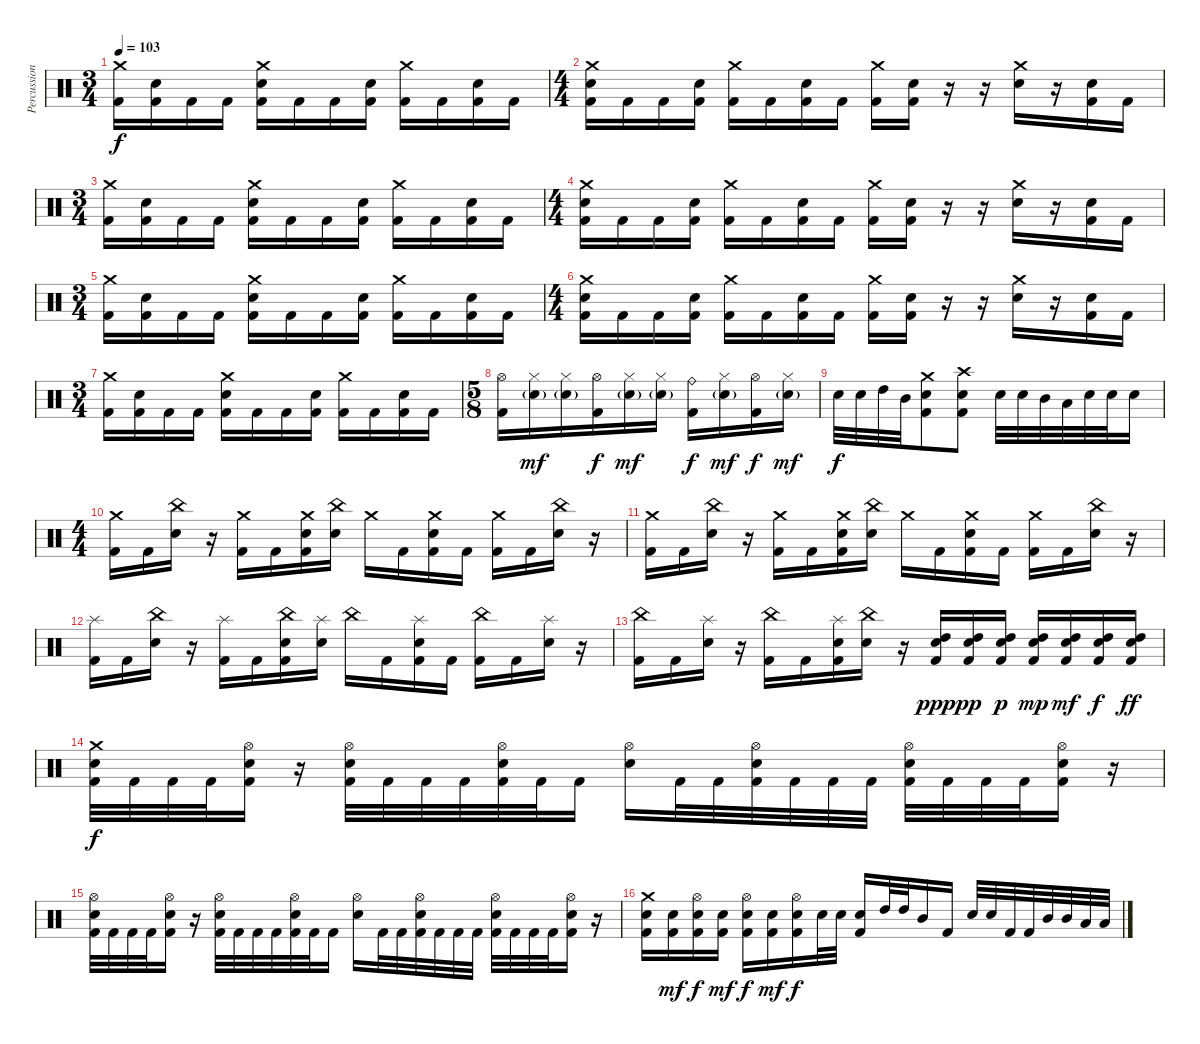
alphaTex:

\track ("Percussion" "Percussion") {instrument percussion}
\staff {score}
\articulation defaults
\ts (3 4)
\tempo 103
\clef neutral
\ks c
("Crash medium (hit)" "Kick (hit) 2").16{dy f} ("Electric Snare (hit)" "Kick (hit) 2").16 "Kick (hit) 2".16 "Kick (hit) 2".16 ("Crash medium (hit)" "Electric Snare (hit)" "Kick (hit) 2").16 "Kick (hit) 2".16 "Kick (hit) 2".16 ("Electric Snare (hit)" "Kick (hit) 2").16 ("Crash medium (hit)" "Kick (hit) 2").16 "Kick (hit) 2".16 ("Electric Snare (hit)" "Kick (hit) 2").16 "Kick (hit) 2".16 |
\ts (4 4)
("Crash medium (hit)" "Electric Snare (hit)" "Kick (hit) 2").16 "Kick (hit) 2".16 "Kick (hit) 2".16 ("Electric Snare (hit)" "Kick (hit) 2").16 ("Crash medium (hit)" "Kick (hit) 2").16 "Kick (hit) 2".16 ("Electric Snare (hit)" "Kick (hit) 2").16 "Kick (hit) 2".16 ("Crash medium (hit)" "Kick (hit) 2").16 ("Electric Snare (hit)" "Kick (hit) 2").16 r.16 r.16 ("Crash medium (hit)" "Electric Snare (hit)").16 r.16 ("Electric Snare (hit)" "Kick (hit) 2").16 "Kick (hit) 2".16 |
\ts (3 4)
("Crash medium (hit)" "Kick (hit) 2").16 ("Electric Snare (hit)" "Kick (hit) 2").16 "Kick (hit) 2".16 "Kick (hit) 2".16 ("Crash medium (hit)" "Electric Snare (hit)" "Kick (hit) 2").16 "Kick (hit) 2".16 "Kick (hit) 2".16 ("Electric Snare (hit)" "Kick (hit) 2").16 ("Crash medium (hit)" "Kick (hit) 2").16 "Kick (hit) 2".16 ("Electric Snare (hit)" "Kick (hit) 2").16 "Kick (hit) 2".16 |
\ts (4 4)
("Crash medium (hit)" "Electric Snare (hit)" "Kick (hit) 2").16 "Kick (hit) 2".16 "Kick (hit) 2".16 ("Electric Snare (hit)" "Kick (hit) 2").16 ("Crash medium (hit)" "Kick (hit) 2").16 "Kick (hit) 2".16 ("Electric Snare (hit)" "Kick (hit) 2").16 "Kick (hit) 2".16 ("Crash medium (hit)" "Kick (hit) 2").16 ("Electric Snare (hit)" "Kick (hit) 2").16 r.16 r.16 ("Crash medium (hit)" "Electric Snare (hit)").16 r.16 ("Electric Snare (hit)" "Kick (hit) 2").16 "Kick (hit) 2".16 |
\ts (3 4)
("Crash medium (hit)" "Kick (hit) 2").16 ("Electric Snare (hit)" "Kick (hit) 2").16 "Kick (hit) 2".16 "Kick (hit) 2".16 ("Crash medium (hit)" "Electric Snare (hit)" "Kick (hit) 2").16 "Kick (hit) 2".16 "Kick (hit) 2".16 ("Electric Snare (hit)" "Kick (hit) 2").16 ("Crash medium (hit)" "Kick (hit) 2").16 "Kick (hit) 2".16 ("Electric Snare (hit)" "Kick (hit) 2").16 "Kick (hit) 2".16 |
\ts (4 4)
("Crash medium (hit)" "Electric Snare (hit)" "Kick (hit) 2").16 "Kick (hit) 2".16 "Kick (hit) 2".16 ("Electric Snare (hit)" "Kick (hit) 2").16 ("Crash medium (hit)" "Kick (hit) 2").16 "Kick (hit) 2".16 ("Electric Snare (hit)" "Kick (hit) 2").16 "Kick (hit) 2".16 ("Crash medium (hit)" "Kick (hit) 2").16 ("Electric Snare (hit)" "Kick (hit) 2").16 r.16 r.16 ("Crash medium (hit)" "Electric Snare (hit)").16 r.16 ("Electric Snare (hit)" "Kick (hit) 2").16 "Kick (hit) 2".16 |
\ts (3 4)
("Crash medium (hit)" "Kick (hit) 2").16 ("Electric Snare (hit)" "Kick (hit) 2").16 "Kick (hit) 2".16 "Kick (hit) 2".16 ("Crash medium (hit)" "Electric Snare (hit)" "Kick (hit) 2").16 "Kick (hit) 2".16 "Kick (hit) 2".16 ("Electric Snare (hit)" "Kick (hit) 2").16 ("Crash medium (hit)" "Kick (hit) 2").16 "Kick (hit) 2".16 ("Electric Snare (hit)" "Kick (hit) 2").16 "Kick (hit) 2".16 |
\ts (5 8)
("Hi-Hat (open)" "Kick (hit) 2").16 ("Hi-Hat (closed)" "Electric Snare (hit)"{g}).16{dy mf} ("Hi-Hat (closed)" "Electric Snare (hit)"{g}).16 ("Hi-Hat (open)" "Kick (hit) 2").16{dy f} ("Hi-Hat (closed)" "Electric Snare (hit)"{g}).16{dy mf} ("Hi-Hat (closed)" "Electric Snare (hit)"{g}).16 ("Ride (bell)" "Kick (hit) 2").16{dy f} ("Hi-Hat (closed)" "Electric Snare (hit)"{g}).16{dy mf} ("Hi-Hat (open)" "Kick (hit) 2").16{dy f} ("Hi-Hat (closed)" "Electric Snare (hit)"{g}).16{dy mf} |
"Electric Snare (hit)".32{dy f} "Electric Snare (hit)".32 "High Tom (hit)".32 "Mid Tom (hit)".32 ("Crash medium (hit)" "Electric Snare (hit)" "Kick (hit) 2").8 ("Crash high (hit)" "Electric Snare (hit)" "Kick (hit) 2").8 "Electric Snare (hit)".32 "Electric Snare (hit)".32 "Mid Tom (hit)".32 "Low Tom (hit)".32 "Electric Snare (hit)".32 "Electric Snare (hit)".32 "Electric Snare (hit)".16 |
\ts (4 4)
("Crash medium (hit)" "Kick (hit) 2").16 "Kick (hit) 2".16 ("China (hit)" "Electric Snare (hit)").16 r.16 ("Crash medium (hit)" "Kick (hit) 2").16 "Kick (hit) 2".16 ("Crash medium (hit)" "Electric Snare (hit)" "Kick (hit) 2").16 ("China (hit)" "Electric Snare (hit)").16 "Crash medium (hit)".16 "Kick (hit) 2".16 ("Crash medium (hit)" "Electric Snare (hit)" "Kick (hit) 2").16 "Kick (hit) 2".16 ("Crash medium (hit)" "Kick (hit) 2").16 "Kick (hit) 2".16 ("China (hit)" "Electric Snare (hit)").16 r.16 |
("Crash medium (hit)" "Kick (hit) 2").16 "Kick (hit) 2".16 ("China (hit)" "Electric Snare (hit)").16 r.16 ("Crash medium (hit)" "Kick (hit) 2").16 "Kick (hit) 2".16 ("Crash medium (hit)" "Electric Snare (hit)" "Kick (hit) 2").16 ("China (hit)" "Electric Snare (hit)").16 "Crash medium (hit)".16 "Kick (hit) 2".16 ("Crash medium (hit)" "Electric Snare (hit)" "Kick (hit) 2").16 "Kick (hit) 2".16 ("Crash medium (hit)" "Kick (hit) 2").16 "Kick (hit) 2".16 ("China (hit)" "Electric Snare (hit)").16 r.16 |
("Splash (hit)" "Kick (hit) 2").16 "Kick (hit) 2".16 ("China (hit)" "Electric Snare (hit)").16 r.16 ("Splash (hit)" "Kick (hit) 2").16 "Kick (hit) 2".16 ("China (hit)" "Electric Snare (hit)" "Kick (hit) 2").16 ("Splash (hit)" "Electric Snare (hit)").16 "China (hit)".16 "Kick (hit) 2".16 ("Splash (hit)" "Electric Snare (hit)" "Kick (hit) 2").16 "Kick (hit) 2".16 ("China (hit)" "Kick (hit) 2").16 "Kick (hit) 2".16 ("Splash (hit)" "Electric Snare (hit)").16 r.16 |
("China (hit)" "Kick (hit) 2").16 "Kick (hit) 2".16 ("Splash (hit)" "Electric Snare (hit)").16 r.16 ("China (hit)" "Kick (hit) 2").16 "Kick (hit) 2".16 ("Splash (hit)" "Electric Snare (hit)" "Kick (hit) 2").16 ("China (hit)" "Electric Snare (hit)").16 r.16 ("High Tom (hit)" "Electric Snare (hit)" "Kick (hit) 2").16{dy ppp} ("High Tom (hit)" "Electric Snare (hit)" "Kick (hit) 2").16{dy pp} ("High Tom (hit)" "Electric Snare (hit)" "Kick (hit) 2").16{dy p} ("High Tom (hit)" "Electric Snare (hit)" "Kick (hit) 2").16{dy mp} ("High Tom (hit)" "Electric Snare (hit)" "Kick (hit) 2").16{dy mf} ("High Tom (hit)" "Electric Snare (hit)" "Kick (hit) 2").16{dy f} ("High Tom (hit)" "Electric Snare (hit)" "Kick (hit) 2").16{dy ff} |
("Crash medium (hit)" "Electric Snare (hit)" "Kick (hit) 2").32{dy f} "Kick (hit) 2".32 "Kick (hit) 2".32 "Kick (hit) 2".32 ("Hi-Hat (open)" "Electric Snare (hit)" "Kick (hit) 2").16 r.16 ("Hi-Hat (open)" "Electric Snare (hit)" "Kick (hit) 2").32 "Kick (hit) 2".32 "Kick (hit) 2".32 "Kick (hit) 2".32 ("Hi-Hat (open)" "Electric Snare (hit)" "Kick (hit) 2").32 "Kick (hit) 2".32 "Kick (hit) 2".16 ("Hi-Hat (open)" "Electric Snare (hit)").16 "Kick (hit) 2".32 "Kick (hit) 2".32 ("Hi-Hat (open)" "Electric Snare (hit)" "Kick (hit) 2").32 "Kick (hit) 2".32 "Kick (hit) 2".32 "Kick (hit) 2".32 ("Hi-Hat (open)" "Electric Snare (hit)" "Kick (hit) 2").32 "Kick (hit) 2".32 "Kick (hit) 2".32 "Kick (hit) 2".32 ("Hi-Hat (open)" "Electric Snare (hit)" "Kick (hit) 2").16 r.16 |
("Hi-Hat (open)" "Electric Snare (hit)" "Kick (hit) 2").32 "Kick (hit) 2".32 "Kick (hit) 2".32 "Kick (hit) 2".32 ("Hi-Hat (open)" "Electric Snare (hit)" "Kick (hit) 2").16 r.16 ("Hi-Hat (open)" "Electric Snare (hit)" "Kick (hit) 2").32 "Kick (hit) 2".32 "Kick (hit) 2".32 "Kick (hit) 2".32 ("Hi-Hat (open)" "Electric Snare (hit)" "Kick (hit) 2").32 "Kick (hit) 2".32 "Kick (hit) 2".16 ("Hi-Hat (open)" "Electric Snare (hit)").16 "Kick (hit) 2".32 "Kick (hit) 2".32 ("Hi-Hat (open)" "Electric Snare (hit)" "Kick (hit) 2").32 "Kick (hit) 2".32 "Kick (hit) 2".32 "Kick (hit) 2".32 ("Hi-Hat (open)" "Electric Snare (hit)" "Kick (hit) 2").32 "Kick (hit) 2".32 "Kick (hit) 2".32 "Kick (hit) 2".32 ("Hi-Hat (open)" "Electric Snare (hit)" "Kick (hit) 2").16 r.16 |
("Crash medium (hit)" "Electric Snare (hit)" "Kick (hit) 2").16 ("Electric Snare (hit)" "Kick (hit) 2").16{dy mf} ("Hi-Hat (open)" "Electric Snare (hit)" "Kick (hit) 2").16{dy f} ("Electric Snare (hit)" "Kick (hit) 2").16{dy mf} ("Hi-Hat (open)" "Electric Snare (hit)" "Kick (hit) 2").16{dy f} ("Electric Snare (hit)" "Kick (hit) 2").16{dy mf} ("Hi-Hat (open)" "Electric Snare (hit)" "Kick (hit) 2").16{dy f} "Electric Snare (hit)".32 "Electric Snare (hit)".32 ("Electric Snare (hit)" "Kick (hit) 2").16 "High Tom (hit)".32 "High Tom (hit)".32 "Mid Tom (hit)".16 "Kick (hit) 2".16 "Electric Snare (hit)".32 "Electric Snare (hit)".32 "Kick (hit) 2".32 "Kick (hit) 2".32 "Mid Tom (hit)".32 "Mid Tom (hit)".32 "Low Tom (hit)".32 "Low Tom (hit)".32
